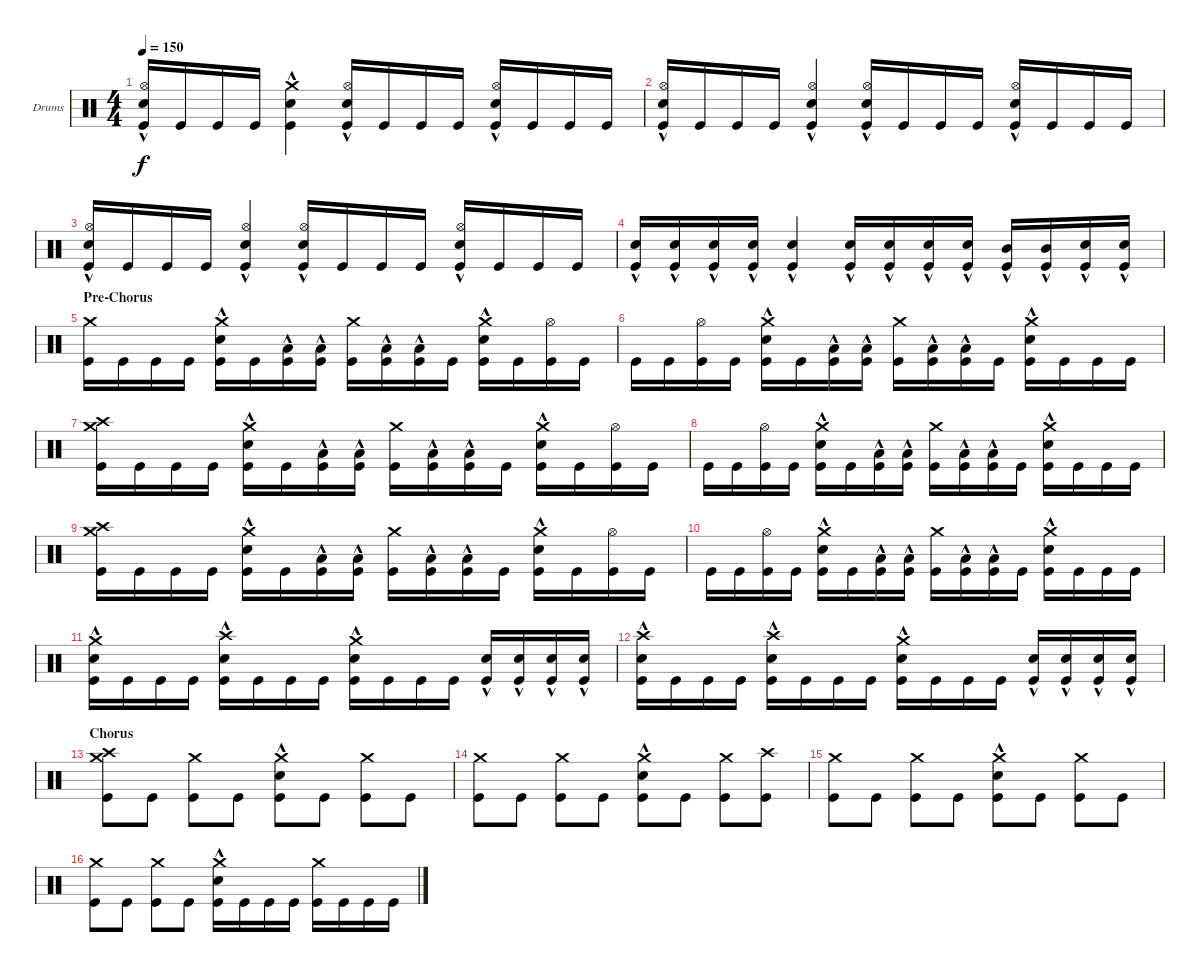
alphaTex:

\bracketExtendMode groupsimilarinstruments
\firstSystemTrackNameOrientation horizontal
\otherSystemsTrackNameOrientation horizontal
\track ("Drumkit" "Drums") {instrument percussion}
\staff {score}
\articulation defaults
\ts (4 4)
\tempo 150
\clef neutral
\ks aminor
("Kick (hit)" "Hi-Hat (open)" "Snare (hit) 2"{hac}).16{dy f} "Kick (hit)".16 "Kick (hit)".16 "Kick (hit)".16 ("Kick (hit)" "Snare (hit) 2"{hac} "Crash medium (hit)").4 ("Kick (hit)" "Snare (hit) 2"{hac} "Hi-Hat (open)").16 "Kick (hit)".16 "Kick (hit)".16 "Kick (hit)".16 ("Kick (hit)" "Snare (hit) 2"{hac} "Hi-Hat (open)").16 "Kick (hit)".16 "Kick (hit)".16 "Kick (hit)".16 |
("Kick (hit)" "Snare (hit) 2"{hac} "Hi-Hat (open)").16 "Kick (hit)".16 "Kick (hit)".16 "Kick (hit)".16 ("Kick (hit)" "Snare (hit) 2"{hac} "Hi-Hat (open)").4 ("Kick (hit)" "Snare (hit) 2"{hac} "Hi-Hat (open)").16 "Kick (hit)".16 "Kick (hit)".16 "Kick (hit)".16 ("Kick (hit)" "Snare (hit) 2"{hac} "Hi-Hat (open)").16 "Kick (hit)".16 "Kick (hit)".16 "Kick (hit)".16 |
("Kick (hit)" "Snare (hit) 2"{hac} "Hi-Hat (open)").16 "Kick (hit)".16 "Kick (hit)".16 "Kick (hit)".16 ("Kick (hit)" "Snare (hit) 2"{hac} "Hi-Hat (open)").4 ("Kick (hit)" "Snare (hit) 2"{hac} "Hi-Hat (open)").16 "Kick (hit)".16 "Kick (hit)".16 "Kick (hit)".16 ("Kick (hit)" "Snare (hit) 2"{hac} "Hi-Hat (open)").16 "Kick (hit)".16 "Kick (hit)".16 "Kick (hit)".16 |
("Snare (hit) 2"{hac} "Kick (hit)").16 ("Snare (hit) 2"{hac} "Kick (hit)").16 ("Snare (hit) 2"{hac} "Kick (hit)").16 ("Snare (hit) 2"{hac} "Kick (hit)").16 ("Snare (hit) 2"{hac} "Kick (hit)").4 ("Kick (hit)" "Snare (hit) 2"{hac}).16 ("Kick (hit)" "Snare (hit) 2"{hac}).16 ("Kick (hit)" "Snare (hit) 2"{hac}).16 ("Kick (hit)" "Snare (hit) 2"{hac}).16 ("Kick (hit)" "Mid Tom (hit)"{hac}).16 ("Kick (hit)" "Mid Tom (hit)"{hac}).16 ("Kick (hit)" "Snare (hit) 2"{hac}).16 ("Kick (hit)" "Snare (hit) 2"{hac}).16 |
\section ("" "Pre-Chorus")
("Kick (hit)" "Crash medium (hit)").16 "Kick (hit)".16 "Kick (hit)".16 "Kick (hit)".16 ("Kick (hit)" "Snare (hit) 2"{hac} "Crash medium (hit)").16 "Kick (hit)".16 ("Kick (hit)" "Low Tom (hit)"{hac}).16 ("Kick (hit)" "Low Tom (hit)"{hac}).16 ("Kick (hit)" "Crash medium (hit)").16 ("Kick (hit)" "Low Tom (hit)"{hac}).16 ("Kick (hit)" "Low Tom (hit)"{hac}).16 "Kick (hit)".16 ("Kick (hit)" "Crash medium (hit)" "Snare (hit) 2"{hac}).16 "Kick (hit)".16 ("Kick (hit)" "Hi-Hat (open)").16 "Kick (hit)".16 |
"Kick (hit)".16 "Kick (hit)".16 ("Kick (hit)" "Hi-Hat (open)").16 "Kick (hit)".16 ("Kick (hit)" "Snare (hit) 2"{hac} "Crash medium (hit)").16 "Kick (hit)".16 ("Kick (hit)" "Low Tom (hit)"{hac}).16 ("Kick (hit)" "Low Tom (hit)"{hac}).16 ("Kick (hit)" "Crash medium (hit)").16 ("Kick (hit)" "Low Tom (hit)"{hac}).16 ("Kick (hit)" "Low Tom (hit)"{hac}).16 "Kick (hit)".16 ("Kick (hit)" "Crash medium (hit)" "Snare (hit) 2"{hac}).16 "Kick (hit)".16 "Kick (hit)".16 "Kick (hit)".16 |
("Kick (hit)" "Crash medium (hit)" "Crash high (hit)").16 "Kick (hit)".16 "Kick (hit)".16 "Kick (hit)".16 ("Kick (hit)" "Snare (hit) 2"{hac} "Crash medium (hit)").16 "Kick (hit)".16 ("Kick (hit)" "Low Tom (hit)"{hac}).16 ("Kick (hit)" "Low Tom (hit)"{hac}).16 ("Kick (hit)" "Crash medium (hit)").16 ("Kick (hit)" "Low Tom (hit)"{hac}).16 ("Kick (hit)" "Low Tom (hit)"{hac}).16 "Kick (hit)".16 ("Kick (hit)" "Crash medium (hit)" "Snare (hit) 2"{hac}).16 "Kick (hit)".16 ("Kick (hit)" "Hi-Hat (open)").16 "Kick (hit)".16 |
"Kick (hit)".16 "Kick (hit)".16 ("Kick (hit)" "Hi-Hat (open)").16 "Kick (hit)".16 ("Kick (hit)" "Snare (hit) 2"{hac} "Crash medium (hit)").16 "Kick (hit)".16 ("Kick (hit)" "Low Tom (hit)"{hac}).16 ("Kick (hit)" "Low Tom (hit)"{hac}).16 ("Kick (hit)" "Crash medium (hit)").16 ("Kick (hit)" "Low Tom (hit)"{hac}).16 ("Kick (hit)" "Low Tom (hit)"{hac}).16 "Kick (hit)".16 ("Kick (hit)" "Crash medium (hit)" "Snare (hit) 2"{hac}).16 "Kick (hit)".16 "Kick (hit)".16 "Kick (hit)".16 |
("Kick (hit)" "Crash medium (hit)" "Crash high (hit)").16 "Kick (hit)".16 "Kick (hit)".16 "Kick (hit)".16 ("Kick (hit)" "Snare (hit) 2"{hac} "Crash medium (hit)").16 "Kick (hit)".16 ("Kick (hit)" "Low Tom (hit)"{hac}).16 ("Kick (hit)" "Low Tom (hit)"{hac}).16 ("Kick (hit)" "Crash medium (hit)").16 ("Kick (hit)" "Low Tom (hit)"{hac}).16 ("Kick (hit)" "Low Tom (hit)"{hac}).16 "Kick (hit)".16 ("Kick (hit)" "Crash medium (hit)" "Snare (hit) 2"{hac}).16 "Kick (hit)".16 ("Kick (hit)" "Hi-Hat (open)").16 "Kick (hit)".16 |
"Kick (hit)".16 "Kick (hit)".16 ("Kick (hit)" "Hi-Hat (open)").16 "Kick (hit)".16 ("Kick (hit)" "Snare (hit) 2"{hac} "Crash medium (hit)").16 "Kick (hit)".16 ("Kick (hit)" "Low Tom (hit)"{hac}).16 ("Kick (hit)" "Low Tom (hit)"{hac}).16 ("Kick (hit)" "Crash medium (hit)").16 ("Kick (hit)" "Low Tom (hit)"{hac}).16 ("Kick (hit)" "Low Tom (hit)"{hac}).16 "Kick (hit)".16 ("Kick (hit)" "Crash medium (hit)" "Snare (hit) 2"{hac}).16 "Kick (hit)".16 "Kick (hit)".16 "Kick (hit)".16 |
("Kick (hit)" "Snare (hit) 2"{hac} "Crash medium (hit)").16 "Kick (hit)".16 "Kick (hit)".16 "Kick (hit)".16 ("Kick (hit)" "Snare (hit) 2"{hac} "Crash high (hit)").16 "Kick (hit)".16 "Kick (hit)".16 "Kick (hit)".16 ("Kick (hit)" "Snare (hit) 2"{hac} "Crash medium (hit)").16 "Kick (hit)".16 "Kick (hit)".16 "Kick (hit)".16 ("Kick (hit)" "Snare (hit) 2"{hac}).16 ("Kick (hit)" "Snare (hit) 2"{hac}).16 ("Kick (hit)" "Snare (hit) 2"{hac}).16 ("Kick (hit)" "Snare (hit) 2"{hac}).16 |
("Kick (hit)" "Snare (hit) 2"{hac} "Crash high (hit)").16 "Kick (hit)".16 "Kick (hit)".16 "Kick (hit)".16 ("Kick (hit)" "Snare (hit) 2"{hac} "Crash high (hit)").16 "Kick (hit)".16 "Kick (hit)".16 "Kick (hit)".16 ("Kick (hit)" "Snare (hit) 2"{hac} "Crash medium (hit)").16 "Kick (hit)".16 "Kick (hit)".16 "Kick (hit)".16 ("Kick (hit)" "Snare (hit) 2"{hac}).16 ("Kick (hit)" "Snare (hit) 2"{hac}).16 ("Kick (hit)" "Snare (hit) 2"{hac}).16 ("Kick (hit)" "Snare (hit) 2"{hac}).16 |
\section ("" "Chorus")
("Kick (hit)" "Crash medium (hit)" "Crash high (hit)").8 "Kick (hit)".8 ("Kick (hit)" "Crash medium (hit)").8 "Kick (hit)".8 ("Kick (hit)" "Crash medium (hit)" "Snare (hit) 2"{hac}).8 "Kick (hit)".8 ("Kick (hit)" "Crash medium (hit)").8 "Kick (hit)".8 |
("Kick (hit)" "Crash medium (hit)").8 "Kick (hit)".8 ("Kick (hit)" "Crash medium (hit)").8 "Kick (hit)".8 ("Kick (hit)" "Crash medium (hit)" "Snare (hit) 2"{hac}).8 "Kick (hit)".8 ("Kick (hit)" "Crash medium (hit)").8 ("Kick (hit)" "Crash high (hit)").8 |
("Kick (hit)" "Crash medium (hit)").8 "Kick (hit)".8 ("Kick (hit)" "Crash medium (hit)").8 "Kick (hit)".8 ("Kick (hit)" "Crash medium (hit)" "Snare (hit) 2"{hac}).8 "Kick (hit)".8 ("Kick (hit)" "Crash medium (hit)").8 "Kick (hit)".8 |
("Kick (hit)" "Crash medium (hit)").8 "Kick (hit)".8 ("Kick (hit)" "Crash medium (hit)").8 "Kick (hit)".8 ("Kick (hit)" "Crash medium (hit)" "Snare (hit) 2"{hac}).16 "Kick (hit)".16 "Kick (hit)".16 "Kick (hit)".16 ("Kick (hit)" "Crash medium (hit)").16 "Kick (hit)".16 "Kick (hit)".16 "Kick (hit)".16
